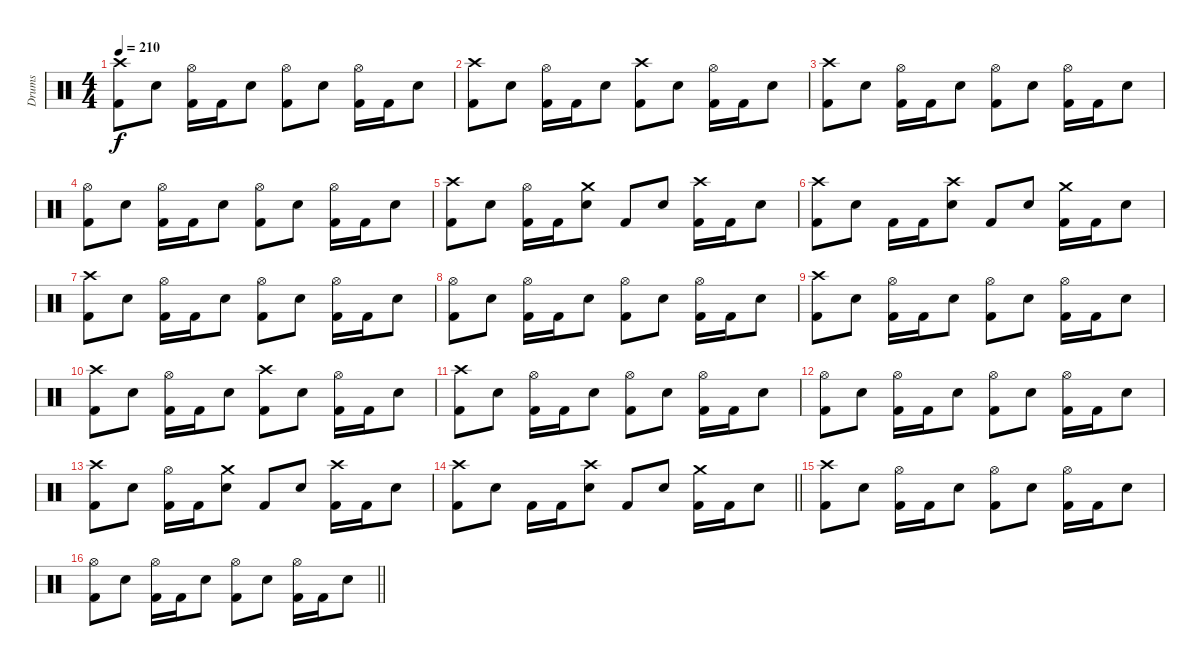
\track ("Drums" "Drums") {instrument percussion}
\staff {score}
\articulation defaults
\ts (4 4)
\tempo 210
\clef neutral
\ks c
("Crash high (hit)" "Kick (hit) 2").8{dy f} "Snare (hit) 2".8 ("Hi-Hat (open)" "Kick (hit) 2").16 "Kick (hit) 2".16 "Snare (hit) 2".8 ("Hi-Hat (open)" "Kick (hit) 2").8 "Snare (hit) 2".8 ("Hi-Hat (open)" "Kick (hit) 2").16 "Kick (hit) 2".16 "Snare (hit) 2".8 |
("Crash high (hit)" "Kick (hit) 2").8 "Snare (hit) 2".8 ("Hi-Hat (open)" "Kick (hit) 2").16 "Kick (hit) 2".16 "Snare (hit) 2".8 ("Crash high (hit)" "Kick (hit) 2").8 "Snare (hit) 2".8 ("Hi-Hat (open)" "Kick (hit) 2").16 "Kick (hit) 2".16 "Snare (hit) 2".8 |
("Crash high (hit)" "Kick (hit) 2").8 "Snare (hit) 2".8 ("Hi-Hat (open)" "Kick (hit) 2").16 "Kick (hit) 2".16 "Snare (hit) 2".8 ("Hi-Hat (open)" "Kick (hit) 2").8 "Snare (hit) 2".8 ("Hi-Hat (open)" "Kick (hit) 2").16 "Kick (hit) 2".16 "Snare (hit) 2".8 |
("Hi-Hat (open)" "Kick (hit) 2").8 "Snare (hit) 2".8 ("Hi-Hat (open)" "Kick (hit) 2").16 "Kick (hit) 2".16 "Snare (hit) 2".8 ("Hi-Hat (open)" "Kick (hit) 2").8 "Snare (hit) 2".8 ("Hi-Hat (open)" "Kick (hit) 2").16 "Kick (hit) 2".16 "Snare (hit) 2".8 |
("Crash high (hit)" "Kick (hit) 2").8 "Snare (hit) 2".8 ("Hi-Hat (open)" "Kick (hit) 2").16 "Kick (hit) 2".16 ("Crash medium (hit)" "Snare (hit) 2").8 "Kick (hit) 2".8 "Snare (hit) 2".8 ("Crash high (hit)" "Kick (hit) 2").16 "Kick (hit) 2".16 "Snare (hit) 2".8 |
("Crash high (hit)" "Kick (hit) 2").8 "Snare (hit) 2".8 "Kick (hit) 2".16 "Kick (hit) 2".16 ("Crash high (hit)" "Snare (hit) 2").8 "Kick (hit) 2".8 "Snare (hit) 2".8 ("Crash medium (hit)" "Kick (hit) 2").16 "Kick (hit) 2".16 "Snare (hit) 2".8 |
("Crash high (hit)" "Kick (hit) 2").8 "Snare (hit) 2".8 ("Hi-Hat (open)" "Kick (hit) 2").16 "Kick (hit) 2".16 "Snare (hit) 2".8 ("Hi-Hat (open)" "Kick (hit) 2").8 "Snare (hit) 2".8 ("Hi-Hat (open)" "Kick (hit) 2").16 "Kick (hit) 2".16 "Snare (hit) 2".8 |
("Hi-Hat (open)" "Kick (hit) 2").8 "Snare (hit) 2".8 ("Hi-Hat (open)" "Kick (hit) 2").16 "Kick (hit) 2".16 "Snare (hit) 2".8 ("Hi-Hat (open)" "Kick (hit) 2").8 "Snare (hit) 2".8 ("Hi-Hat (open)" "Kick (hit) 2").16 "Kick (hit) 2".16 "Snare (hit) 2".8 |
("Crash high (hit)" "Kick (hit) 2").8 "Snare (hit) 2".8 ("Hi-Hat (open)" "Kick (hit) 2").16 "Kick (hit) 2".16 "Snare (hit) 2".8 ("Hi-Hat (open)" "Kick (hit) 2").8 "Snare (hit) 2".8 ("Hi-Hat (open)" "Kick (hit) 2").16 "Kick (hit) 2".16 "Snare (hit) 2".8 |
("Crash high (hit)" "Kick (hit) 2").8 "Snare (hit) 2".8 ("Hi-Hat (open)" "Kick (hit) 2").16 "Kick (hit) 2".16 "Snare (hit) 2".8 ("Crash high (hit)" "Kick (hit) 2").8 "Snare (hit) 2".8 ("Hi-Hat (open)" "Kick (hit) 2").16 "Kick (hit) 2".16 "Snare (hit) 2".8 |
("Crash high (hit)" "Kick (hit) 2").8 "Snare (hit) 2".8 ("Hi-Hat (open)" "Kick (hit) 2").16 "Kick (hit) 2".16 "Snare (hit) 2".8 ("Hi-Hat (open)" "Kick (hit) 2").8 "Snare (hit) 2".8 ("Hi-Hat (open)" "Kick (hit) 2").16 "Kick (hit) 2".16 "Snare (hit) 2".8 |
("Hi-Hat (open)" "Kick (hit) 2").8 "Snare (hit) 2".8 ("Hi-Hat (open)" "Kick (hit) 2").16 "Kick (hit) 2".16 "Snare (hit) 2".8 ("Hi-Hat (open)" "Kick (hit) 2").8 "Snare (hit) 2".8 ("Hi-Hat (open)" "Kick (hit) 2").16 "Kick (hit) 2".16 "Snare (hit) 2".8 |
("Crash high (hit)" "Kick (hit) 2").8 "Snare (hit) 2".8 ("Hi-Hat (open)" "Kick (hit) 2").16 "Kick (hit) 2".16 ("Crash medium (hit)" "Snare (hit) 2").8 "Kick (hit) 2".8 "Snare (hit) 2".8 ("Crash high (hit)" "Kick (hit) 2").16 "Kick (hit) 2".16 "Snare (hit) 2".8 |
\barLineRight lightlight
("Crash high (hit)" "Kick (hit) 2").8 "Snare (hit) 2".8 "Kick (hit) 2".16 "Kick (hit) 2".16 ("Crash high (hit)" "Snare (hit) 2").8 "Kick (hit) 2".8 "Snare (hit) 2".8 ("Crash medium (hit)" "Kick (hit) 2").16 "Kick (hit) 2".16 "Snare (hit) 2".8 |
("Crash high (hit)" "Kick (hit) 2").8 "Snare (hit) 2".8 ("Hi-Hat (open)" "Kick (hit) 2").16 "Kick (hit) 2".16 "Snare (hit) 2".8 ("Hi-Hat (open)" "Kick (hit) 2").8 "Snare (hit) 2".8 ("Hi-Hat (open)" "Kick (hit) 2").16 "Kick (hit) 2".16 "Snare (hit) 2".8 |
\barLineRight lightlight
("Hi-Hat (open)" "Kick (hit) 2").8 "Snare (hit) 2".8 ("Hi-Hat (open)" "Kick (hit) 2").16 "Kick (hit) 2".16 "Snare (hit) 2".8 ("Hi-Hat (open)" "Kick (hit) 2").8 "Snare (hit) 2".8 ("Hi-Hat (open)" "Kick (hit) 2").16 "Kick (hit) 2".16 "Snare (hit) 2".8
